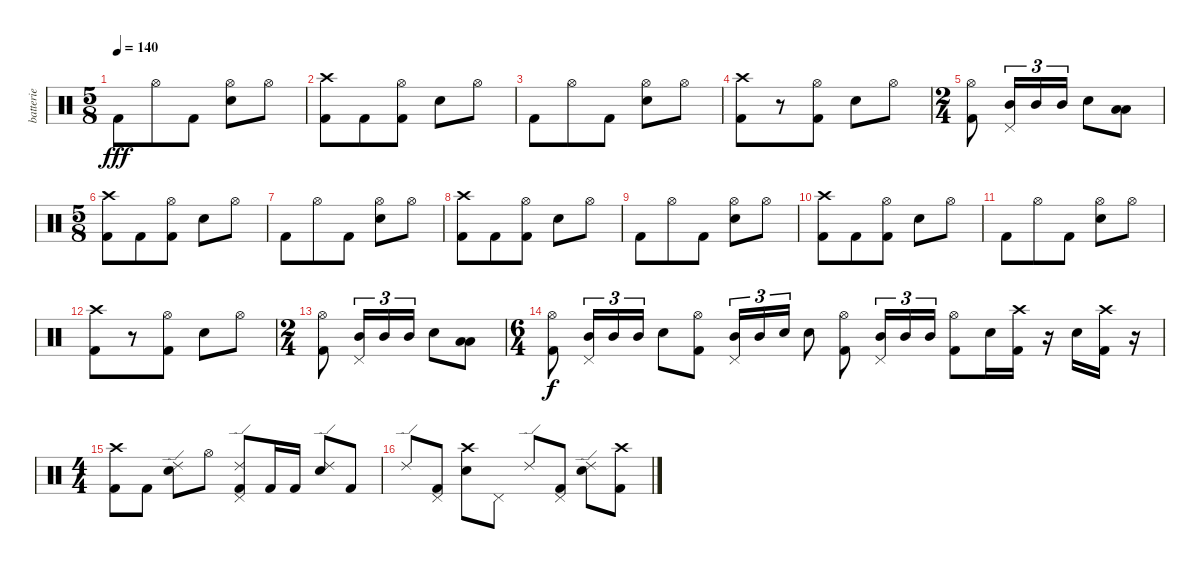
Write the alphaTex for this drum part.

\track ("batterie" "batterie") {instrument percussion}
\staff {score}
\articulation defaults
\ts (5 8)
\tempo 140
\clef neutral
\ks c "Kick (hit) 2".8{dy fff} "Hi-Hat (open)".8 "Kick (hit) 2".8
("Hi-Hat (open)" "Electric Snare (hit)").8 "Hi-Hat (open)".8 |
("Crash high (hit)" "Kick (hit) 2").8 "Kick (hit) 2".8 ("Hi-Hat (open)" "Kick (hit) 2").8 "Electric Snare (hit)".8 "Hi-Hat (open)".8 |
"Kick (hit) 2".8 "Hi-Hat (open)".8 "Kick (hit) 2".8 ("Hi-Hat (open)" "Electric Snare (hit)").8 "Hi-Hat (open)".8 |
("Crash high (hit)" "Kick (hit) 2").8 r.8 ("Hi-Hat (open)" "Kick (hit) 2").8 "Electric Snare (hit)".8 "Hi-Hat (open)".8 |
\ts (2 4)
("Hi-Hat (open)" "Kick (hit) 2").8 ("Mid Tom (hit)" "Pedal Hi-Hat (hit)").16{tu (3 2)} "Mid Tom (hit)".16{tu (3 2)} "Mid Tom (hit)".16{tu (3 2)} "Electric Snare (hit)".8 ("Low Tom (hit)" "Low Floor Tom (hit)").8 |
\ts (5 8)
("Crash high (hit)" "Kick (hit) 2").8 "Kick (hit) 2".8 ("Hi-Hat (open)" "Kick (hit) 2").8 "Electric Snare (hit)".8 "Hi-Hat (open)".8 |
"Kick (hit) 2".8 "Hi-Hat (open)".8 "Kick (hit) 2".8 ("Hi-Hat (open)" "Electric Snare (hit)").8 "Hi-Hat (open)".8 |
("Crash high (hit)" "Kick (hit) 2").8 "Kick (hit) 2".8 ("Hi-Hat (open)" "Kick (hit) 2").8 "Electric Snare (hit)".8 "Hi-Hat (open)".8 |
"Kick (hit) 2".8 "Hi-Hat (open)".8 "Kick (hit) 2".8 ("Hi-Hat (open)" "Electric Snare (hit)").8 "Hi-Hat (open)".8 |
("Crash high (hit)" "Kick (hit) 2").8 "Kick (hit) 2".8 ("Hi-Hat (open)" "Kick (hit) 2").8 "Electric Snare (hit)".8 "Hi-Hat (open)".8 |
"Kick (hit) 2".8 "Hi-Hat (open)".8 "Kick (hit) 2".8 ("Hi-Hat (open)" "Electric Snare (hit)").8 "Hi-Hat (open)".8 |
("Crash high (hit)" "Kick (hit) 2").8 r.8 ("Hi-Hat (open)" "Kick (hit) 2").8 "Electric Snare (hit)".8 "Hi-Hat (open)".8 |
\ts (2 4)
("Hi-Hat (open)" "Kick (hit) 2").8 ("Mid Tom (hit)" "Pedal Hi-Hat (hit)").16{tu (3 2)} "Mid Tom (hit)".16{tu (3 2)} "Mid Tom (hit)".16{tu (3 2)} "Electric Snare (hit)".8 ("Low Tom (hit)" "Low Floor Tom (hit)").8 |
\ts (6 4)
("Hi-Hat (open)" "Kick (hit) 2").8{dy f} ("Mid Tom (hit)" "Pedal Hi-Hat (hit)").16{tu (3 2)} "Mid Tom (hit)".16{tu (3 2)} "Mid Tom (hit)".16{tu (3 2)} "Electric Snare (hit)".8 ("Hi-Hat (open)" "Kick (hit) 2").8 ("Mid Tom (hit)" "Pedal Hi-Hat (hit)").16{tu (3 2)} "Mid Tom (hit)".16{tu (3 2)} "Electric Snare (hit)".16{tu (3 2)} "Electric Snare (hit)".8 ("Hi-Hat (open)" "Kick (hit) 2").8 ("Mid Tom (hit)" "Pedal Hi-Hat (hit)").16{tu (3 2)} "Mid Tom (hit)".16{tu (3 2)} "Mid Tom (hit)".16{tu (3 2)} ("Hi-Hat (open)" "Kick (hit) 2").8 "Electric Snare (hit)".16 ("Crash high (hit)" "Kick (hit) 2").16 r.16 "Electric Snare (hit)".16 ("Crash high (hit)" "Kick (hit) 2").16 r.16 |
\ts (4 4)
("Crash high (hit)" "Kick (hit) 2").8 "Kick (hit) 2".8 ("Ride (edge) 2" "Electric Snare (hit)").8 "Hi-Hat (open)".8 ("Ride (edge) 2" "Pedal Hi-Hat (hit)" "Kick (hit) 2").8 "Kick (hit) 2".16 "Kick (hit) 2".16 ("Ride (edge) 2" "Electric Snare (hit)").8 "Kick (hit) 2".8 |
"Ride (edge) 2".8 ("Pedal Hi-Hat (hit)" "Kick (hit) 2").8 ("Crash high (hit)" "Electric Snare (hit)").8 "Pedal Hi-Hat (hit)".8 "Ride (edge) 2".8 ("Pedal Hi-Hat (hit)" "Kick (hit) 2").8 ("Ride (edge) 2" "Electric Snare (hit)").8 ("Crash high (hit)" "Kick (hit) 2").8
